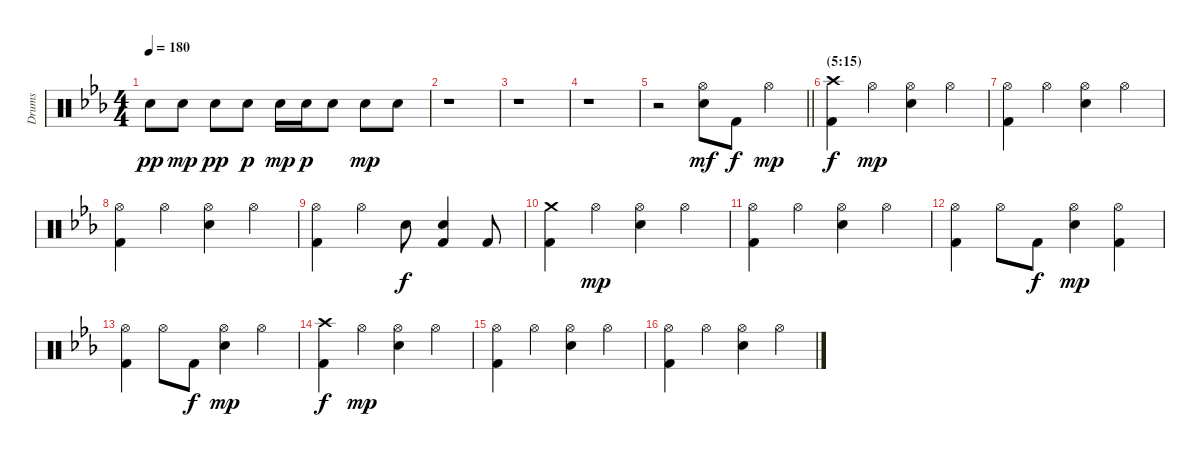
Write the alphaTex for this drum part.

\track ("Drums" "Drums") {instrument percussion}
\staff {score}
\articulation defaults
\ts (4 4)
\tempo 180
\clef neutral
\ks eb "Electric Snare (hit)".8{dy pp} "Electric Snare (hit)".8{dy mp} "Electric Snare (hit)".8{dy pp} "Electric Snare (hit)".8{dy p} "Electric Snare (hit)".16{dy mp} "Electric Snare (hit)".16{dy p} "Electric Snare (hit)".8 "Electric Snare (hit)".8{dy mp} "Electric Snare (hit)".8
|
r.1 |
r.1 |
r.1 |
\barLineRight lightlight
r.2{volume 16} ("Hi-Hat (open)" "Electric Snare (hit)").8{dy mf} "Kick (hit) 2".8{dy f} "Hi-Hat (open)".4{dy mp} |
\section ("" "(5:15)")
("Crash high (hit)" "Kick (hit) 2").4{dy f} "Hi-Hat (open)".4{dy mp} ("Hi-Hat (open)" "Electric Snare (hit)").4 "Hi-Hat (open)".4 |
("Hi-Hat (open)" "Kick (hit) 2").4 "Hi-Hat (open)".4 ("Hi-Hat (open)" "Electric Snare (hit)").4 "Hi-Hat (open)".4 |
("Hi-Hat (open)" "Kick (hit) 2").4 "Hi-Hat (open)".4 ("Hi-Hat (open)" "Electric Snare (hit)").4 "Hi-Hat (open)".4 |
("Hi-Hat (open)" "Kick (hit) 2").4 "Hi-Hat (open)".4 "Electric Snare (hit)".8{dy f} ("Electric Snare (hit)" "Kick (hit) 2").4 "Kick (hit) 2".8 |
("Crash medium (hit)" "Kick (hit) 2").4 "Hi-Hat (open)".4{dy mp} ("Hi-Hat (open)" "Electric Snare (hit)").4 "Hi-Hat (open)".4 |
("Hi-Hat (open)" "Kick (hit) 2").4 "Hi-Hat (open)".4 ("Hi-Hat (open)" "Electric Snare (hit)").4 "Hi-Hat (open)".4 |
("Hi-Hat (open)" "Kick (hit) 2").4 "Hi-Hat (open)".8 "Kick (hit) 2".8{dy f} ("Hi-Hat (open)" "Electric Snare (hit)").4{dy mp} ("Hi-Hat (open)" "Kick (hit) 2").4 |
("Hi-Hat (open)" "Kick (hit) 2").4 "Hi-Hat (open)".8 "Kick (hit) 2".8{dy f} ("Hi-Hat (open)" "Electric Snare (hit)").4{dy mp} "Hi-Hat (open)".4 |
("Crash high (hit)" "Kick (hit) 2").4{dy f} "Hi-Hat (open)".4{dy mp} ("Hi-Hat (open)" "Electric Snare (hit)").4 "Hi-Hat (open)".4 |
("Hi-Hat (open)" "Kick (hit) 2").4 "Hi-Hat (open)".4 ("Hi-Hat (open)" "Electric Snare (hit)").4 "Hi-Hat (open)".4 |
("Hi-Hat (open)" "Kick (hit) 2").4 "Hi-Hat (open)".4 ("Hi-Hat (open)" "Electric Snare (hit)").4 "Hi-Hat (open)".4
